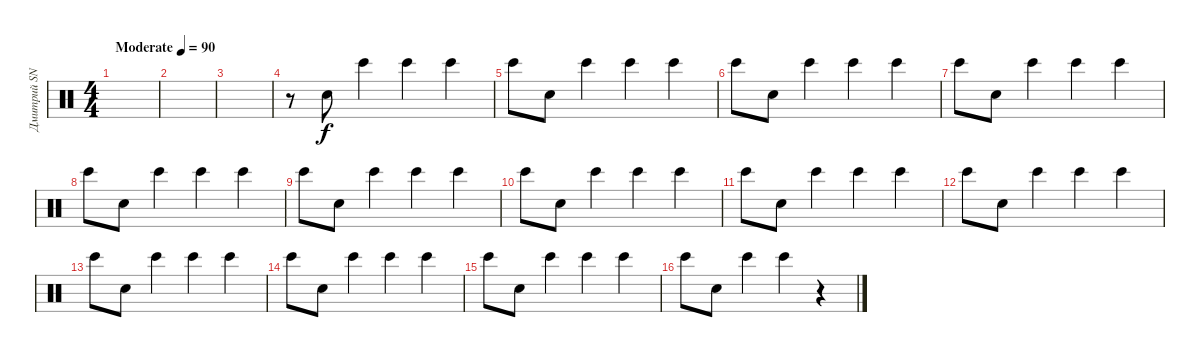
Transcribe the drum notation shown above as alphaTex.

\track ("Дмитрий SNAKE Хакимов" "Дмитрий SN") {instrument percussion}
\staff {score}
\articulation defaults
\ts (4 4)
\tempo (90 "Moderate")
\clef neutral
\ks c
|
|
|
r.8 "Hand Clap (hit)".8 "Bongo High (hit)".4 "Bongo High (hit)".4 "Bongo High (hit)".4 |
"Bongo High (hit)".8 "Hand Clap (hit)".8 "Bongo High (hit)".4 "Bongo High (hit)".4 "Bongo High (hit)".4 |
"Bongo High (hit)".8 "Hand Clap (hit)".8 "Bongo High (hit)".4 "Bongo High (hit)".4 "Bongo High (hit)".4 |
"Bongo High (hit)".8 "Hand Clap (hit)".8 "Bongo High (hit)".4 "Bongo High (hit)".4 "Bongo High (hit)".4 |
"Bongo High (hit)".8 "Hand Clap (hit)".8 "Bongo High (hit)".4 "Bongo High (hit)".4 "Bongo High (hit)".4 |
"Bongo High (hit)".8 "Hand Clap (hit)".8 "Bongo High (hit)".4 "Bongo High (hit)".4 "Bongo High (hit)".4 |
"Bongo High (hit)".8 "Hand Clap (hit)".8 "Bongo High (hit)".4 "Bongo High (hit)".4 "Bongo High (hit)".4 |
"Bongo High (hit)".8 "Hand Clap (hit)".8 "Bongo High (hit)".4 "Bongo High (hit)".4 "Bongo High (hit)".4 |
"Bongo High (hit)".8 "Hand Clap (hit)".8 "Bongo High (hit)".4 "Bongo High (hit)".4 "Bongo High (hit)".4 |
"Bongo High (hit)".8 "Hand Clap (hit)".8 "Bongo High (hit)".4 "Bongo High (hit)".4 "Bongo High (hit)".4 |
"Bongo High (hit)".8 "Hand Clap (hit)".8 "Bongo High (hit)".4 "Bongo High (hit)".4 "Bongo High (hit)".4 |
"Bongo High (hit)".8 "Hand Clap (hit)".8 "Bongo High (hit)".4 "Bongo High (hit)".4 "Bongo High (hit)".4 |
"Bongo High (hit)".8 "Hand Clap (hit)".8 "Bongo High (hit)".4 "Bongo High (hit)".4 r.4
